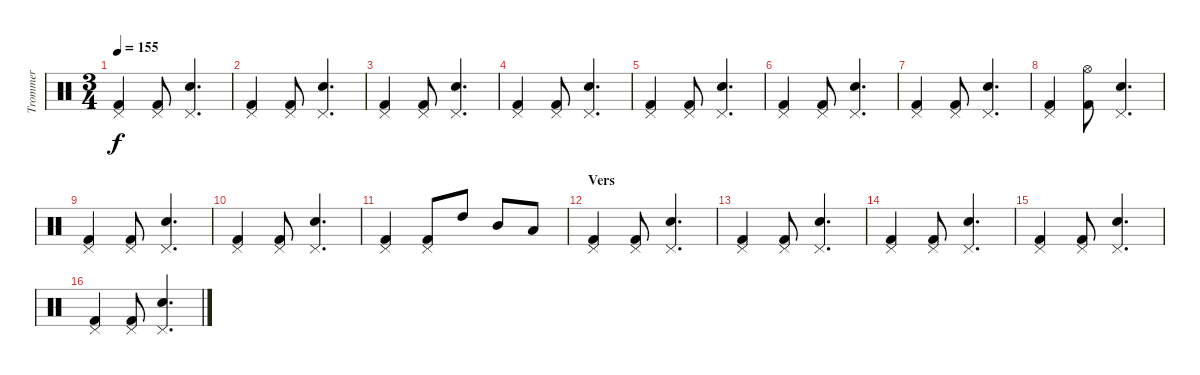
\track ("Trommer" "Trommer") {instrument percussion}
\staff {score}
\articulation defaults
\ts (3 4)
\tempo 155
\clef neutral
\ks c
("Kick (hit) 2" "Pedal Hi-Hat (hit)").4{dy f} ("Kick (hit) 2" "Pedal Hi-Hat (hit)").8 ("Snare (hit) 2" "Pedal Hi-Hat (hit)").4{d} |
("Kick (hit) 2" "Pedal Hi-Hat (hit)").4 ("Kick (hit) 2" "Pedal Hi-Hat (hit)").8 ("Snare (hit) 2" "Pedal Hi-Hat (hit)").4{d} |
("Kick (hit) 2" "Pedal Hi-Hat (hit)").4 ("Kick (hit) 2" "Pedal Hi-Hat (hit)").8 ("Snare (hit) 2" "Pedal Hi-Hat (hit)").4{d} |
("Kick (hit) 2" "Pedal Hi-Hat (hit)").4 ("Kick (hit) 2" "Pedal Hi-Hat (hit)").8 ("Snare (hit) 2" "Pedal Hi-Hat (hit)").4{d} |
("Kick (hit) 2" "Pedal Hi-Hat (hit)").4 ("Kick (hit) 2" "Pedal Hi-Hat (hit)").8 ("Snare (hit) 2" "Pedal Hi-Hat (hit)").4{d} |
("Kick (hit) 2" "Pedal Hi-Hat (hit)").4 ("Kick (hit) 2" "Pedal Hi-Hat (hit)").8 ("Snare (hit) 2" "Pedal Hi-Hat (hit)").4{d} |
("Kick (hit) 2" "Pedal Hi-Hat (hit)").4 ("Kick (hit) 2" "Pedal Hi-Hat (hit)").8 ("Snare (hit) 2" "Pedal Hi-Hat (hit)").4{d} |
("Kick (hit) 2" "Pedal Hi-Hat (hit)").4 ("Kick (hit) 2" "Hi-Hat (open)").8 ("Snare (hit) 2" "Pedal Hi-Hat (hit)").4{d} |
("Kick (hit) 2" "Pedal Hi-Hat (hit)").4 ("Kick (hit) 2" "Pedal Hi-Hat (hit)").8 ("Snare (hit) 2" "Pedal Hi-Hat (hit)").4{d} |
("Kick (hit) 2" "Pedal Hi-Hat (hit)").4 ("Kick (hit) 2" "Pedal Hi-Hat (hit)").8 ("Snare (hit) 2" "Pedal Hi-Hat (hit)").4{d} |
("Kick (hit) 2" "Pedal Hi-Hat (hit)").4 ("Kick (hit) 2" "Pedal Hi-Hat (hit)").8 "High Tom (hit)".8 "Mid Tom (hit)".8 "Low Tom (hit)".8 |
\section ("" "Vers")
("Kick (hit) 2" "Pedal Hi-Hat (hit)").4 ("Kick (hit) 2" "Pedal Hi-Hat (hit)").8 ("Snare (hit) 2" "Pedal Hi-Hat (hit)").4{d} |
("Kick (hit) 2" "Pedal Hi-Hat (hit)").4 ("Kick (hit) 2" "Pedal Hi-Hat (hit)").8 ("Snare (hit) 2" "Pedal Hi-Hat (hit)").4{d} |
("Kick (hit) 2" "Pedal Hi-Hat (hit)").4 ("Kick (hit) 2" "Pedal Hi-Hat (hit)").8 ("Snare (hit) 2" "Pedal Hi-Hat (hit)").4{d} |
("Kick (hit) 2" "Pedal Hi-Hat (hit)").4 ("Kick (hit) 2" "Pedal Hi-Hat (hit)").8 ("Snare (hit) 2" "Pedal Hi-Hat (hit)").4{d} |
("Kick (hit) 2" "Pedal Hi-Hat (hit)").4 ("Kick (hit) 2" "Pedal Hi-Hat (hit)").8 ("Snare (hit) 2" "Pedal Hi-Hat (hit)").4{d}
